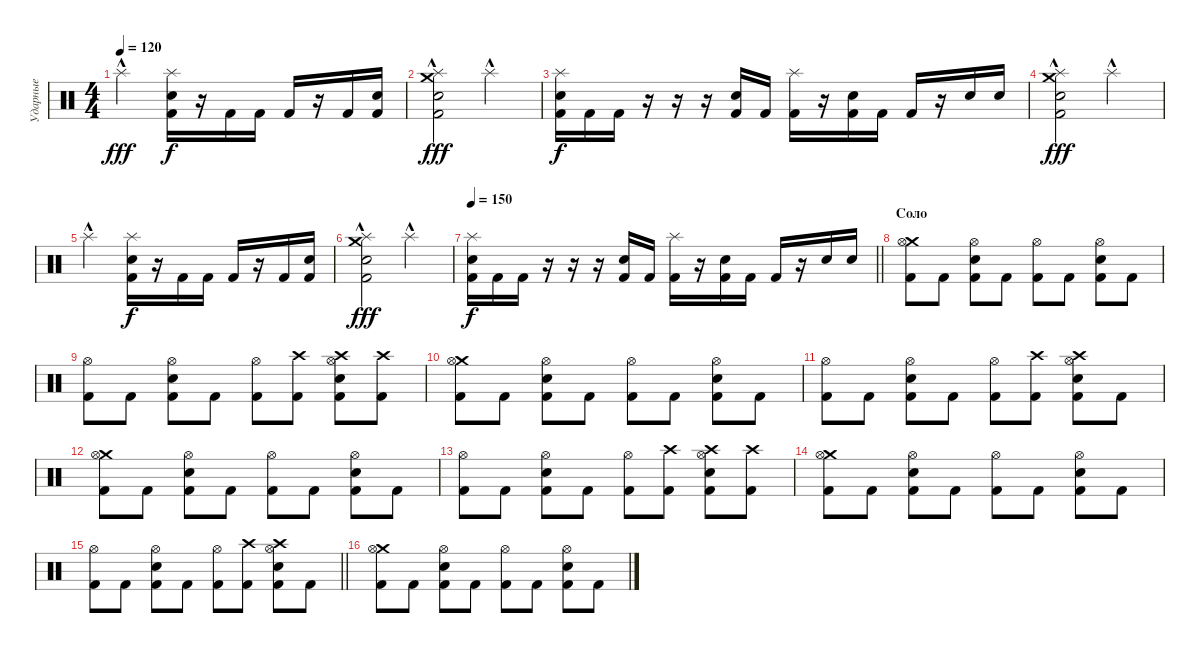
\track ("Ударные" "Ударные") {instrument percussion}
\staff {score}
\articulation defaults
\ts (4 4)
\tempo 120
\clef neutral
\ks c "Splash (hit)"{hac}.2{dy fff}
("Splash (hit)" "Snare (hit) 2" "Kick (hit) 2").16{dy f} r.16 "Kick (hit) 2".16 "Kick (hit) 2".16 "Kick (hit) 2".16 r.16 "Kick (hit) 2".16 ("Snare (hit) 2" "Kick (hit) 2").16 |
("Crash medium (hit)" "Splash (hit)"{hac} "Snare (hit) 2" "Kick (hit) 2").2{dy fff} "Splash (hit)"{hac}.2 |
("Splash (hit)" "Snare (hit) 2" "Kick (hit) 2").16{dy f} "Kick (hit) 2".16 "Kick (hit) 2".16 r.16 r.16 r.16 ("Snare (hit) 2" "Kick (hit) 2").16 "Kick (hit) 2".16 ("Splash (hit)" "Kick (hit) 2").16 r.16 ("Snare (hit) 2" "Kick (hit) 2").16 "Kick (hit) 2".16 "Kick (hit) 2".16 r.16 "Snare (hit) 2".16 "Snare (hit) 2".16 |
("Crash medium (hit)" "Splash (hit)"{hac} "Snare (hit) 2" "Kick (hit) 2").2{dy fff} "Splash (hit)"{hac}.2 |
"Splash (hit)"{hac}.2 ("Splash (hit)" "Snare (hit) 2" "Kick (hit) 2").16{dy f} r.16 "Kick (hit) 2".16 "Kick (hit) 2".16 "Kick (hit) 2".16 r.16 "Kick (hit) 2".16 ("Snare (hit) 2" "Kick (hit) 2").16 |
("Crash medium (hit)" "Splash (hit)"{hac} "Snare (hit) 2" "Kick (hit) 2").2{dy fff} "Splash (hit)"{hac}.2 |
\tempo 150
\barLineRight lightlight
("Splash (hit)" "Snare (hit) 2" "Kick (hit) 2").16{dy f} "Kick (hit) 2".16 "Kick (hit) 2".16 r.16 r.16 r.16 ("Snare (hit) 2" "Kick (hit) 2").16 "Kick (hit) 2".16 ("Splash (hit)" "Kick (hit) 2").16 r.16 ("Snare (hit) 2" "Kick (hit) 2").16 "Kick (hit) 2".16 "Kick (hit) 2".16 r.16 "Snare (hit) 2".16 "Snare (hit) 2".16 |
\section ("" "Соло")
("Crash medium (hit)" "Hi-Hat (open)" "Kick (hit) 2").8 "Kick (hit) 2".8 ("Hi-Hat (open)" "Snare (hit) 2" "Kick (hit) 2").8 "Kick (hit) 2".8 ("Hi-Hat (open)" "Kick (hit) 2").8 "Kick (hit) 2".8 ("Hi-Hat (open)" "Snare (hit) 2" "Kick (hit) 2").8 "Kick (hit) 2".8 |
("Hi-Hat (open)" "Kick (hit) 2").8 "Kick (hit) 2".8 ("Hi-Hat (open)" "Snare (hit) 2" "Kick (hit) 2").8 "Kick (hit) 2".8 ("Hi-Hat (open)" "Kick (hit) 2").8 ("Crash high (hit)" "Kick (hit) 2").8 ("Crash high (hit)" "Hi-Hat (open)" "Snare (hit) 2" "Kick (hit) 2").8 ("Crash high (hit)" "Kick (hit) 2").8 |
("Crash medium (hit)" "Hi-Hat (open)" "Kick (hit) 2").8 "Kick (hit) 2".8 ("Hi-Hat (open)" "Snare (hit) 2" "Kick (hit) 2").8 "Kick (hit) 2".8 ("Hi-Hat (open)" "Kick (hit) 2").8 "Kick (hit) 2".8 ("Hi-Hat (open)" "Snare (hit) 2" "Kick (hit) 2").8 "Kick (hit) 2".8 |
("Hi-Hat (open)" "Kick (hit) 2").8 "Kick (hit) 2".8 ("Hi-Hat (open)" "Snare (hit) 2" "Kick (hit) 2").8 "Kick (hit) 2".8 ("Hi-Hat (open)" "Kick (hit) 2").8 ("Crash high (hit)" "Kick (hit) 2").8 ("Crash high (hit)" "Hi-Hat (open)" "Snare (hit) 2" "Kick (hit) 2").8 "Kick (hit) 2".8 |
("Crash medium (hit)" "Hi-Hat (open)" "Kick (hit) 2").8 "Kick (hit) 2".8 ("Hi-Hat (open)" "Snare (hit) 2" "Kick (hit) 2").8 "Kick (hit) 2".8 ("Hi-Hat (open)" "Kick (hit) 2").8 "Kick (hit) 2".8 ("Hi-Hat (open)" "Snare (hit) 2" "Kick (hit) 2").8 "Kick (hit) 2".8 |
("Hi-Hat (open)" "Kick (hit) 2").8 "Kick (hit) 2".8 ("Hi-Hat (open)" "Snare (hit) 2" "Kick (hit) 2").8 "Kick (hit) 2".8 ("Hi-Hat (open)" "Kick (hit) 2").8 ("Crash high (hit)" "Kick (hit) 2").8 ("Crash high (hit)" "Hi-Hat (open)" "Snare (hit) 2" "Kick (hit) 2").8 ("Crash high (hit)" "Kick (hit) 2").8 |
("Crash medium (hit)" "Hi-Hat (open)" "Kick (hit) 2").8 "Kick (hit) 2".8 ("Hi-Hat (open)" "Snare (hit) 2" "Kick (hit) 2").8 "Kick (hit) 2".8 ("Hi-Hat (open)" "Kick (hit) 2").8 "Kick (hit) 2".8 ("Hi-Hat (open)" "Snare (hit) 2" "Kick (hit) 2").8 "Kick (hit) 2".8 |
\barLineRight lightlight
("Hi-Hat (open)" "Kick (hit) 2").8 "Kick (hit) 2".8 ("Hi-Hat (open)" "Snare (hit) 2" "Kick (hit) 2").8 "Kick (hit) 2".8 ("Hi-Hat (open)" "Kick (hit) 2").8 ("Crash high (hit)" "Kick (hit) 2").8 ("Crash high (hit)" "Hi-Hat (open)" "Snare (hit) 2" "Kick (hit) 2").8 "Kick (hit) 2".8 |
("Crash medium (hit)" "Hi-Hat (open)" "Kick (hit) 2").8 "Kick (hit) 2".8 ("Hi-Hat (open)" "Snare (hit) 2" "Kick (hit) 2").8 "Kick (hit) 2".8 ("Hi-Hat (open)" "Kick (hit) 2").8 "Kick (hit) 2".8 ("Hi-Hat (open)" "Snare (hit) 2" "Kick (hit) 2").8 "Kick (hit) 2".8
